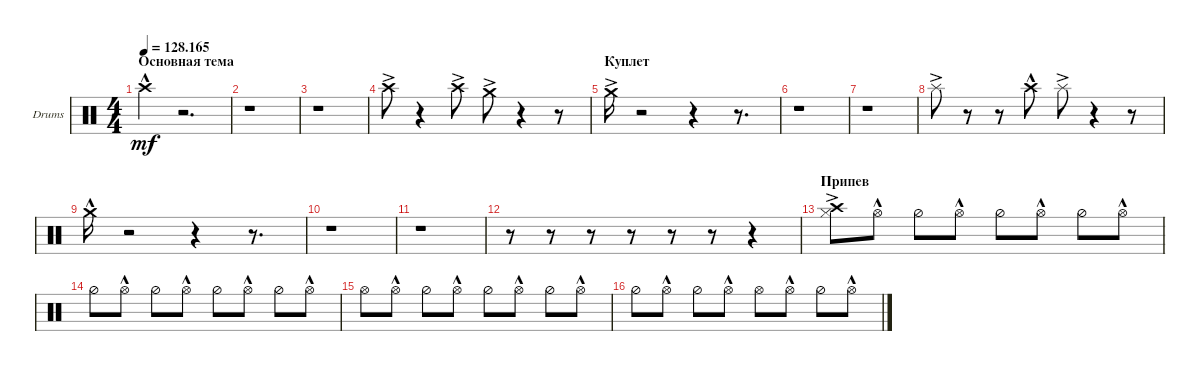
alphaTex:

\defaultSystemsLayout 4
\bracketExtendMode groupsimilarinstruments
\firstSystemTrackNameOrientation horizontal
\otherSystemsTrackNameOrientation horizontal
\track ("Drumkit" "Drums") {instrument percussion}
\staff {score}
\articulation defaults
\ts (4 4)
\section ("" "Основная тема")
\tempo
128.165
\accidentals auto
\clef neutral
\ottava regular
\simile none
\ks c "Crash high (hit)"{hac}.4{dy mf}
r.2{d} |
r.1 |
r.1 |
"Crash high (hit)"{ac}.8 r.4 "Crash high (hit)"{ac}.8 "Crash medium (hit)"{ac}.8 r.4 r.8 |
\section ("" "Куплет")
"Crash medium (hit)"{ac}.16 r.2 r.4 r.8{d} |
r.1 |
r.1 |
"Splash (hit)"{ac}.8 r.8 r.8 "Crash high (hit)"{hac}.8 "Splash (hit)"{ac}.8 r.4 r.8 |
"Crash medium (hit)"{hac}.16 r.2 r.4 r.8{d} |
r.1 |
r.1 |
r.8 r.8 r.8 r.8 r.8 r.8 r.4 |
\section ("" "Припев")
("Hi-Hat (closed)" "Crash high (hit)"{ac}).8 "Hi-Hat (open)"{hac}.8 "Hi-Hat (half)".8 "Hi-Hat (open)"{hac}.8 "Hi-Hat (half)".8 "Hi-Hat (open)"{hac}.8 "Hi-Hat (half)".8 "Hi-Hat (open)"{hac}.8 |
"Hi-Hat (half)".8 "Hi-Hat (open)"{hac}.8 "Hi-Hat (half)".8 "Hi-Hat (open)"{hac}.8 "Hi-Hat (half)".8 "Hi-Hat (open)"{hac}.8 "Hi-Hat (half)".8 "Hi-Hat (open)"{hac}.8 |
"Hi-Hat (open)".8 "Hi-Hat (open)"{hac}.8 "Hi-Hat (half)".8 "Hi-Hat (open)"{hac}.8 "Hi-Hat (half)".8 "Hi-Hat (open)"{hac}.8 "Hi-Hat (half)".8 "Hi-Hat (open)"{hac}.8 |
"Hi-Hat (half)".8 "Hi-Hat (open)"{hac}.8 "Hi-Hat (half)".8 "Hi-Hat (open)"{hac}.8 "Hi-Hat (open)".8 "Hi-Hat (open)"{hac}.8 "Hi-Hat (half)".8 "Hi-Hat (open)"{hac}.8
